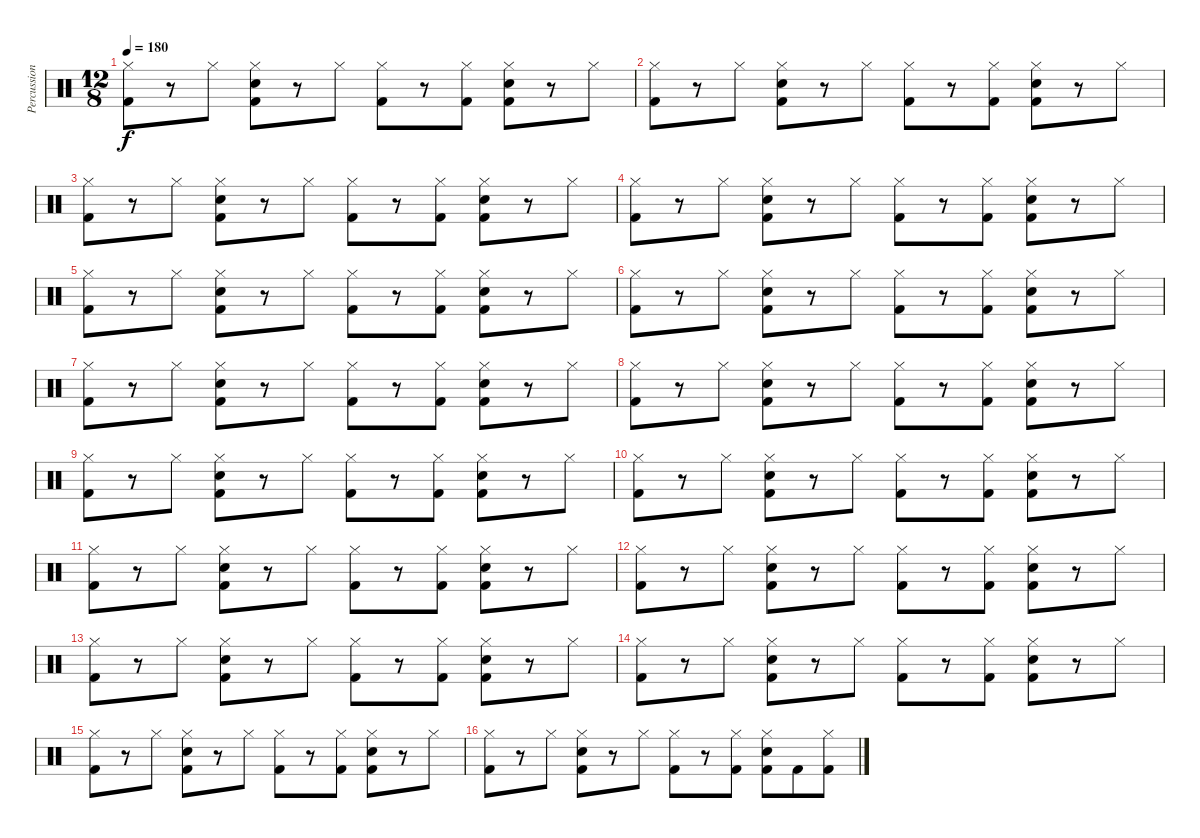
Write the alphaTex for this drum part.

\track ("Percussions" "Percussion") {instrument percussion}
\staff {score}
\articulation defaults
\ts (12 8)
\tempo 180
\clef neutral
\ks c
("Kick (hit) 2" "Hi-Hat (closed)").8{dy f} r.8 "Hi-Hat (closed)".8 ("Snare (hit) 2" "Kick (hit) 2" "Hi-Hat (closed)").8 r.8 "Hi-Hat (closed)".8 ("Kick (hit) 2" "Hi-Hat (closed)").8 r.8 ("Kick (hit) 2" "Hi-Hat (closed)").8 ("Snare (hit) 2" "Kick (hit) 2" "Hi-Hat (closed)").8 r.8 "Hi-Hat (closed)".8 |
("Kick (hit) 2" "Hi-Hat (closed)").8 r.8 "Hi-Hat (closed)".8 ("Snare (hit) 2" "Kick (hit) 2" "Hi-Hat (closed)").8 r.8 "Hi-Hat (closed)".8 ("Kick (hit) 2" "Hi-Hat (closed)").8 r.8 ("Kick (hit) 2" "Hi-Hat (closed)").8 ("Snare (hit) 2" "Kick (hit) 2" "Hi-Hat (closed)").8 r.8 "Hi-Hat (closed)".8 |
("Kick (hit) 2" "Hi-Hat (closed)").8 r.8 "Hi-Hat (closed)".8 ("Snare (hit) 2" "Kick (hit) 2" "Hi-Hat (closed)").8 r.8 "Hi-Hat (closed)".8 ("Kick (hit) 2" "Hi-Hat (closed)").8 r.8 ("Kick (hit) 2" "Hi-Hat (closed)").8 ("Snare (hit) 2" "Kick (hit) 2" "Hi-Hat (closed)").8 r.8 "Hi-Hat (closed)".8 |
("Kick (hit) 2" "Hi-Hat (closed)").8 r.8 "Hi-Hat (closed)".8 ("Snare (hit) 2" "Kick (hit) 2" "Hi-Hat (closed)").8 r.8 "Hi-Hat (closed)".8 ("Kick (hit) 2" "Hi-Hat (closed)").8 r.8 ("Kick (hit) 2" "Hi-Hat (closed)").8 ("Snare (hit) 2" "Kick (hit) 2" "Hi-Hat (closed)").8 r.8 "Hi-Hat (closed)".8 |
("Kick (hit) 2" "Hi-Hat (closed)").8 r.8 "Hi-Hat (closed)".8 ("Snare (hit) 2" "Kick (hit) 2" "Hi-Hat (closed)").8 r.8 "Hi-Hat (closed)".8 ("Kick (hit) 2" "Hi-Hat (closed)").8 r.8 ("Kick (hit) 2" "Hi-Hat (closed)").8 ("Snare (hit) 2" "Kick (hit) 2" "Hi-Hat (closed)").8 r.8 "Hi-Hat (closed)".8 |
("Kick (hit) 2" "Hi-Hat (closed)").8 r.8 "Hi-Hat (closed)".8 ("Snare (hit) 2" "Kick (hit) 2" "Hi-Hat (closed)").8 r.8 "Hi-Hat (closed)".8 ("Kick (hit) 2" "Hi-Hat (closed)").8 r.8 ("Kick (hit) 2" "Hi-Hat (closed)").8 ("Snare (hit) 2" "Kick (hit) 2" "Hi-Hat (closed)").8 r.8 "Hi-Hat (closed)".8 |
("Kick (hit) 2" "Hi-Hat (closed)").8 r.8 "Hi-Hat (closed)".8 ("Snare (hit) 2" "Kick (hit) 2" "Hi-Hat (closed)").8 r.8 "Hi-Hat (closed)".8 ("Kick (hit) 2" "Hi-Hat (closed)").8 r.8 ("Kick (hit) 2" "Hi-Hat (closed)").8 ("Snare (hit) 2" "Kick (hit) 2" "Hi-Hat (closed)").8 r.8 "Hi-Hat (closed)".8 |
("Kick (hit) 2" "Hi-Hat (closed)").8 r.8 "Hi-Hat (closed)".8 ("Snare (hit) 2" "Kick (hit) 2" "Hi-Hat (closed)").8 r.8 "Hi-Hat (closed)".8 ("Kick (hit) 2" "Hi-Hat (closed)").8 r.8 ("Kick (hit) 2" "Hi-Hat (closed)").8 ("Snare (hit) 2" "Kick (hit) 2" "Hi-Hat (closed)").8 r.8 "Hi-Hat (closed)".8 |
("Kick (hit) 2" "Hi-Hat (closed)").8 r.8 "Hi-Hat (closed)".8 ("Snare (hit) 2" "Kick (hit) 2" "Hi-Hat (closed)").8 r.8 "Hi-Hat (closed)".8 ("Kick (hit) 2" "Hi-Hat (closed)").8 r.8 ("Kick (hit) 2" "Hi-Hat (closed)").8 ("Snare (hit) 2" "Kick (hit) 2" "Hi-Hat (closed)").8 r.8 "Hi-Hat (closed)".8 |
("Kick (hit) 2" "Hi-Hat (closed)").8 r.8 "Hi-Hat (closed)".8 ("Snare (hit) 2" "Kick (hit) 2" "Hi-Hat (closed)").8 r.8 "Hi-Hat (closed)".8 ("Kick (hit) 2" "Hi-Hat (closed)").8 r.8 ("Kick (hit) 2" "Hi-Hat (closed)").8 ("Snare (hit) 2" "Kick (hit) 2" "Hi-Hat (closed)").8 r.8 "Hi-Hat (closed)".8 |
("Kick (hit) 2" "Hi-Hat (closed)").8 r.8 "Hi-Hat (closed)".8 ("Snare (hit) 2" "Kick (hit) 2" "Hi-Hat (closed)").8 r.8 "Hi-Hat (closed)".8 ("Kick (hit) 2" "Hi-Hat (closed)").8 r.8 ("Kick (hit) 2" "Hi-Hat (closed)").8 ("Snare (hit) 2" "Kick (hit) 2" "Hi-Hat (closed)").8 r.8 "Hi-Hat (closed)".8 |
("Kick (hit) 2" "Hi-Hat (closed)").8 r.8 "Hi-Hat (closed)".8 ("Snare (hit) 2" "Kick (hit) 2" "Hi-Hat (closed)").8 r.8 "Hi-Hat (closed)".8 ("Kick (hit) 2" "Hi-Hat (closed)").8 r.8 ("Kick (hit) 2" "Hi-Hat (closed)").8 ("Snare (hit) 2" "Kick (hit) 2" "Hi-Hat (closed)").8 r.8 "Hi-Hat (closed)".8 |
("Kick (hit) 2" "Hi-Hat (closed)").8 r.8 "Hi-Hat (closed)".8 ("Snare (hit) 2" "Kick (hit) 2" "Hi-Hat (closed)").8 r.8 "Hi-Hat (closed)".8 ("Kick (hit) 2" "Hi-Hat (closed)").8 r.8 ("Kick (hit) 2" "Hi-Hat (closed)").8 ("Snare (hit) 2" "Kick (hit) 2" "Hi-Hat (closed)").8 r.8 "Hi-Hat (closed)".8 |
("Kick (hit) 2" "Hi-Hat (closed)").8 r.8 "Hi-Hat (closed)".8 ("Snare (hit) 2" "Kick (hit) 2" "Hi-Hat (closed)").8 r.8 "Hi-Hat (closed)".8 ("Kick (hit) 2" "Hi-Hat (closed)").8 r.8 ("Kick (hit) 2" "Hi-Hat (closed)").8 ("Snare (hit) 2" "Kick (hit) 2" "Hi-Hat (closed)").8 r.8 "Hi-Hat (closed)".8 |
("Kick (hit) 2" "Hi-Hat (closed)").8 r.8 "Hi-Hat (closed)".8 ("Snare (hit) 2" "Kick (hit) 2" "Hi-Hat (closed)").8 r.8 "Hi-Hat (closed)".8 ("Kick (hit) 2" "Hi-Hat (closed)").8 r.8 ("Kick (hit) 2" "Hi-Hat (closed)").8 ("Snare (hit) 2" "Kick (hit) 2" "Hi-Hat (closed)").8 r.8 "Hi-Hat (closed)".8 |
("Kick (hit) 2" "Hi-Hat (closed)").8 r.8 "Hi-Hat (closed)".8 ("Snare (hit) 2" "Kick (hit) 2" "Hi-Hat (closed)").8 r.8 "Hi-Hat (closed)".8 ("Kick (hit) 2" "Hi-Hat (closed)").8 r.8 ("Kick (hit) 2" "Hi-Hat (closed)").8 ("Snare (hit) 2" "Kick (hit) 2" "Hi-Hat (closed)").8 "Kick (hit) 2".8 ("Kick (hit) 2" "Hi-Hat (closed)").8
